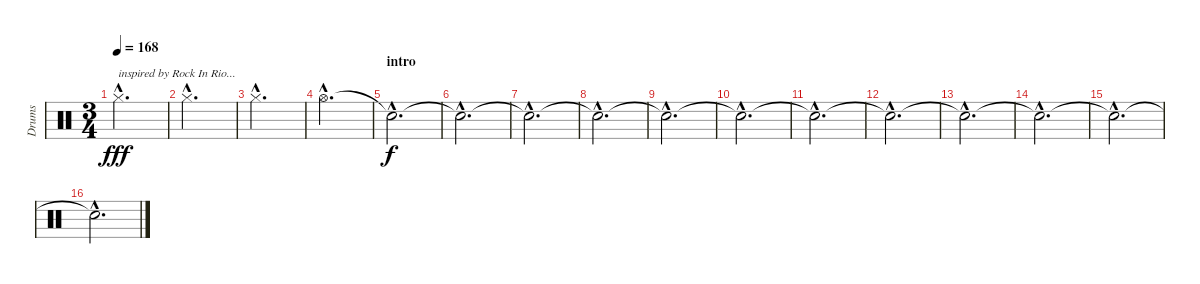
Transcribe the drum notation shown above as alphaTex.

\track ("Drums" "Drums") {instrument percussion}
\staff {score}
\articulation defaults
\ts (3 4)
\tempo 168
\clef neutral
\ks c "Hi-Hat (closed)"{hac}.2{d txt "inspired by Rock In Rio..." dy fff}
|
"Hi-Hat (closed)"{hac}.2{d} |
"Hi-Hat (closed)"{hac}.2{d} |
"Hi-Hat (open)"{hac}.2{d} |
\section ("" "intro")
"Snare (hit)"{hac t}.2{d dy f} |
"Snare (hit)"{hac t}.2{d} |
"Snare (hit)"{hac t}.2{d} |
"Snare (hit)"{hac t}.2{d} |
"Snare (hit)"{hac t}.2{d} |
"Snare (hit)"{hac t}.2{d} |
"Snare (hit)"{hac t}.2{d} |
"Snare (hit)"{hac t}.2{d} |
"Snare (hit)"{hac t}.2{d} |
"Snare (hit)"{hac t}.2{d} |
"Snare (hit)"{hac t}.2{d} |
"Snare (hit)"{hac t}.2{d}
